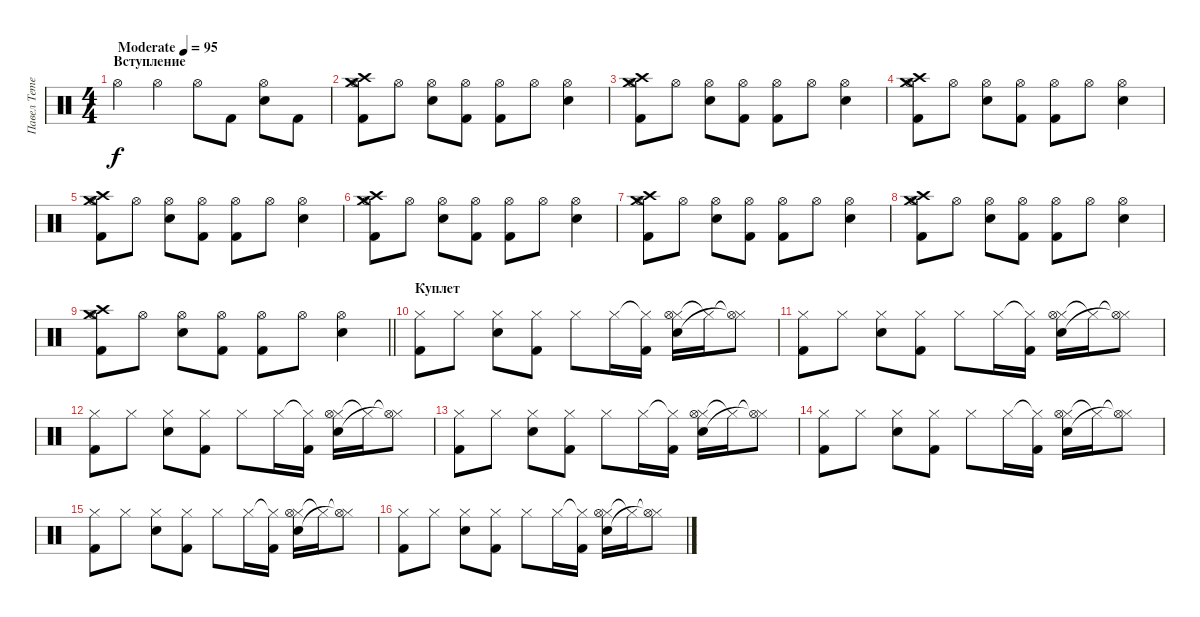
\track ("Павел Тетерин" "Павел Тете") {instrument percussion}
\staff {score}
\articulation defaults
\ts (4 4)
\section ("" "Вступление")
\tempo (95 "Moderate")
\clef neutral
\ks c "Hi-Hat (open)".4{dy f} "Hi-Hat (open)".4 "Hi-Hat (open)".8 "Kick (hit) 2".8
("Snare (hit) 2" "Hi-Hat (open)").8 "Kick (hit) 2".8 |
("Crash high (hit)" "Crash medium (hit)" "Kick (hit) 2" "Hi-Hat (open)").8 "Hi-Hat (open)".8 ("Hi-Hat (open)" "Snare (hit) 2").8 ("Hi-Hat (open)" "Kick (hit) 2").8 ("Hi-Hat (open)" "Kick (hit) 2").8 "Hi-Hat (open)".8 ("Hi-Hat (open)" "Snare (hit) 2").4 |
("Crash high (hit)" "Crash medium (hit)" "Kick (hit) 2" "Hi-Hat (open)").8 "Hi-Hat (open)".8 ("Hi-Hat (open)" "Snare (hit) 2").8 ("Hi-Hat (open)" "Kick (hit) 2").8 ("Hi-Hat (open)" "Kick (hit) 2").8 "Hi-Hat (open)".8 ("Hi-Hat (open)" "Snare (hit) 2").4 |
("Crash high (hit)" "Crash medium (hit)" "Kick (hit) 2" "Hi-Hat (open)").8 "Hi-Hat (open)".8 ("Hi-Hat (open)" "Snare (hit) 2").8 ("Hi-Hat (open)" "Kick (hit) 2").8 ("Hi-Hat (open)" "Kick (hit) 2").8 "Hi-Hat (open)".8 ("Hi-Hat (open)" "Snare (hit) 2").4 |
("Crash high (hit)" "Crash medium (hit)" "Kick (hit) 2" "Hi-Hat (open)").8 "Hi-Hat (open)".8 ("Hi-Hat (open)" "Snare (hit) 2").8 ("Hi-Hat (open)" "Kick (hit) 2").8 ("Hi-Hat (open)" "Kick (hit) 2").8 "Hi-Hat (open)".8 ("Hi-Hat (open)" "Snare (hit) 2").4 |
("Crash high (hit)" "Hi-Hat (open)" "Kick (hit) 2" "Crash medium (hit)").8 "Hi-Hat (open)".8 ("Hi-Hat (open)" "Snare (hit) 2").8 ("Hi-Hat (open)" "Kick (hit) 2").8 ("Hi-Hat (open)" "Kick (hit) 2").8 "Hi-Hat (open)".8 ("Hi-Hat (open)" "Snare (hit) 2").4 |
("Crash high (hit)" "Crash medium (hit)" "Kick (hit) 2" "Hi-Hat (open)").8 "Hi-Hat (open)".8 ("Hi-Hat (open)" "Snare (hit) 2").8 ("Hi-Hat (open)" "Kick (hit) 2").8 ("Hi-Hat (open)" "Kick (hit) 2").8 "Hi-Hat (open)".8 ("Hi-Hat (open)" "Snare (hit) 2").4 |
("Crash high (hit)" "Hi-Hat (open)" "Kick (hit) 2" "Crash medium (hit)").8 "Hi-Hat (open)".8 ("Hi-Hat (open)" "Snare (hit) 2").8 ("Hi-Hat (open)" "Kick (hit) 2").8 ("Hi-Hat (open)" "Kick (hit) 2").8 "Hi-Hat (open)".8 ("Hi-Hat (open)" "Snare (hit) 2").4 |
\barLineRight lightlight
("Crash high (hit)" "Hi-Hat (open)" "Kick (hit) 2" "Crash medium (hit)").8 "Hi-Hat (open)".8 ("Hi-Hat (open)" "Snare (hit) 2").8 ("Hi-Hat (open)" "Kick (hit) 2").8 ("Hi-Hat (open)" "Kick (hit) 2").8 "Hi-Hat (open)".8 ("Hi-Hat (open)" "Snare (hit) 2").4 |
\section ("" "Куплет")
("Hi-Hat (closed)" "Kick (hit) 2").8 "Hi-Hat (closed)".8 ("Hi-Hat (closed)" "Snare (hit) 2").8 ("Hi-Hat (closed)" "Kick (hit) 2").8 "Hi-Hat (closed)".8 "Hi-Hat (closed)".16 ("Hi-Hat (closed)"{t} "Kick (hit) 2").16 ("Hi-Hat (closed)" "Snare (hit) 2" "Hi-Hat (open)").16 "Hi-Hat (closed)"{t}.16 ("Hi-Hat (closed)"{t} "Hi-Hat (open)"{t}).8 |
("Hi-Hat (closed)" "Kick (hit) 2").8 "Hi-Hat (closed)".8 ("Hi-Hat (closed)" "Snare (hit) 2").8 ("Hi-Hat (closed)" "Kick (hit) 2").8 "Hi-Hat (closed)".8 "Hi-Hat (closed)".16 ("Hi-Hat (closed)"{t} "Kick (hit) 2").16 ("Hi-Hat (closed)" "Snare (hit) 2" "Hi-Hat (open)").16 "Hi-Hat (closed)"{t}.16 ("Hi-Hat (closed)"{t} "Hi-Hat (open)"{t}).8 |
("Hi-Hat (closed)" "Kick (hit) 2").8 "Hi-Hat (closed)".8 ("Hi-Hat (closed)" "Snare (hit) 2").8 ("Hi-Hat (closed)" "Kick (hit) 2").8 "Hi-Hat (closed)".8 "Hi-Hat (closed)".16 ("Hi-Hat (closed)"{t} "Kick (hit) 2").16 ("Hi-Hat (closed)" "Snare (hit) 2" "Hi-Hat (open)").16 "Hi-Hat (closed)"{t}.16 ("Hi-Hat (closed)"{t} "Hi-Hat (open)"{t}).8 |
("Hi-Hat (closed)" "Kick (hit) 2").8 "Hi-Hat (closed)".8 ("Hi-Hat (closed)" "Snare (hit) 2").8 ("Hi-Hat (closed)" "Kick (hit) 2").8 "Hi-Hat (closed)".8 "Hi-Hat (closed)".16 ("Hi-Hat (closed)"{t} "Kick (hit) 2").16 ("Hi-Hat (closed)" "Snare (hit) 2" "Hi-Hat (open)").16 "Hi-Hat (closed)"{t}.16 ("Hi-Hat (closed)"{t} "Hi-Hat (open)"{t}).8 |
("Hi-Hat (closed)" "Kick (hit) 2").8 "Hi-Hat (closed)".8 ("Hi-Hat (closed)" "Snare (hit) 2").8 ("Hi-Hat (closed)" "Kick (hit) 2").8 "Hi-Hat (closed)".8 "Hi-Hat (closed)".16 ("Hi-Hat (closed)"{t} "Kick (hit) 2").16 ("Hi-Hat (closed)" "Snare (hit) 2" "Hi-Hat (open)").16 "Hi-Hat (closed)"{t}.16 ("Hi-Hat (closed)"{t} "Hi-Hat (open)"{t}).8 |
("Hi-Hat (closed)" "Kick (hit) 2").8 "Hi-Hat (closed)".8 ("Hi-Hat (closed)" "Snare (hit) 2").8 ("Hi-Hat (closed)" "Kick (hit) 2").8 "Hi-Hat (closed)".8 "Hi-Hat (closed)".16 ("Hi-Hat (closed)"{t} "Kick (hit) 2").16 ("Hi-Hat (closed)" "Snare (hit) 2" "Hi-Hat (open)").16 "Hi-Hat (closed)"{t}.16 ("Hi-Hat (closed)"{t} "Hi-Hat (open)"{t}).8 |
("Hi-Hat (closed)" "Kick (hit) 2").8 "Hi-Hat (closed)".8 ("Hi-Hat (closed)" "Snare (hit) 2").8 ("Hi-Hat (closed)" "Kick (hit) 2").8 "Hi-Hat (closed)".8 "Hi-Hat (closed)".16 ("Hi-Hat (closed)"{t} "Kick (hit) 2").16 ("Hi-Hat (closed)" "Snare (hit) 2" "Hi-Hat (open)").16 "Hi-Hat (closed)"{t}.16 ("Hi-Hat (closed)"{t} "Hi-Hat (open)"{t}).8
